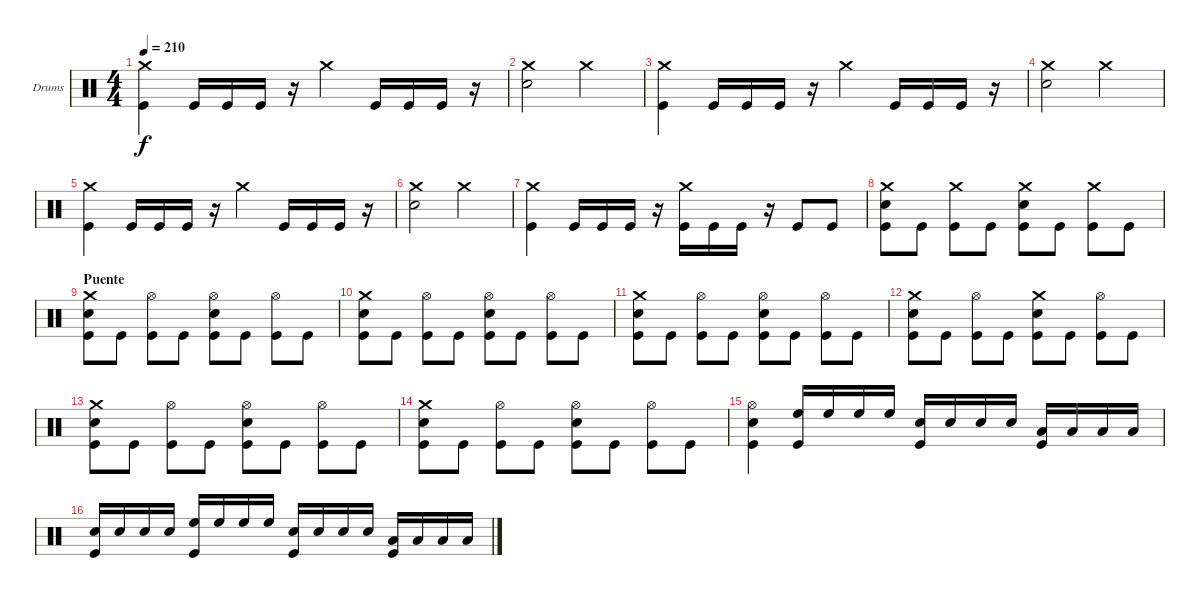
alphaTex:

\bracketExtendMode groupsimilarinstruments
\firstSystemTrackNameOrientation horizontal
\otherSystemsTrackNameOrientation horizontal
\track ("Drumkit" "Drums") {instrument percussion}
\staff {score}
\articulation defaults
\ts (4 4)
\tempo 210
\clef neutral
\ks c
("Crash medium (hit)" "Kick (hit)").4{dy f} "Kick (hit)".16 "Kick (hit)".16 "Kick (hit)".16 r.16 "Crash medium (hit)".4 "Kick (hit)".16 "Kick (hit)".16 "Kick (hit)".16 r.16 |
("Crash medium (hit)" "Snare (hit) 2").2 "Crash medium (hit)".2 |
("Crash medium (hit)" "Kick (hit)").4 "Kick (hit)".16 "Kick (hit)".16 "Kick (hit)".16 r.16 "Crash medium (hit)".4 "Kick (hit)".16 "Kick (hit)".16 "Kick (hit)".16 r.16 |
("Crash medium (hit)" "Snare (hit) 2").2 "Crash medium (hit)".2 |
("Crash medium (hit)" "Kick (hit)").4 "Kick (hit)".16 "Kick (hit)".16 "Kick (hit)".16 r.16 "Crash medium (hit)".4 "Kick (hit)".16 "Kick (hit)".16 "Kick (hit)".16 r.16 |
("Crash medium (hit)" "Snare (hit) 2").2 "Crash medium (hit)".2 |
("Crash medium (hit)" "Kick (hit)").4 "Kick (hit)".16 "Kick (hit)".16 "Kick (hit)".16 r.16 ("Crash medium (hit)" "Kick (hit)").16 "Kick (hit)".16 "Kick (hit)".16 r.16 "Kick (hit)".8 "Kick (hit)".8 |
("Crash medium (hit)" "Snare (hit) 2" "Kick (hit)").8 "Kick (hit)".8 ("Crash medium (hit)" "Kick (hit)").8 "Kick (hit)".8 ("Crash medium (hit)" "Snare (hit) 2" "Kick (hit)").8 "Kick (hit)".8 ("Crash medium (hit)" "Kick (hit)").8 "Kick (hit)".8 |
\section ("" "Puente")
("Crash medium (hit)" "Snare (hit) 2" "Kick (hit)").8 "Kick (hit)".8 ("Hi-Hat (open)" "Kick (hit)").8 "Kick (hit)".8 ("Hi-Hat (open)" "Snare (hit) 2" "Kick (hit)").8 "Kick (hit)".8 ("Hi-Hat (open)" "Kick (hit)").8 "Kick (hit)".8 |
("Crash medium (hit)" "Snare (hit) 2" "Kick (hit)").8 "Kick (hit)".8 ("Hi-Hat (open)" "Kick (hit)").8 "Kick (hit)".8 ("Hi-Hat (open)" "Snare (hit) 2" "Kick (hit)").8 "Kick (hit)".8 ("Hi-Hat (open)" "Kick (hit)").8 "Kick (hit)".8 |
("Crash medium (hit)" "Snare (hit) 2" "Kick (hit)").8 "Kick (hit)".8 ("Hi-Hat (open)" "Kick (hit)").8 "Kick (hit)".8 ("Hi-Hat (open)" "Snare (hit) 2" "Kick (hit)").8 "Kick (hit)".8 ("Hi-Hat (open)" "Kick (hit)").8 "Kick (hit)".8 |
("Crash medium (hit)" "Snare (hit) 2" "Kick (hit)").8 "Kick (hit)".8 ("Hi-Hat (open)" "Kick (hit)").8 "Kick (hit)".8 ("Crash medium (hit)" "Snare (hit) 2" "Kick (hit)").8 "Kick (hit)".8 ("Hi-Hat (open)" "Kick (hit)").8 "Kick (hit)".8 |
("Crash medium (hit)" "Snare (hit) 2" "Kick (hit)").8 "Kick (hit)".8 ("Hi-Hat (open)" "Kick (hit)").8 "Kick (hit)".8 ("Hi-Hat (open)" "Snare (hit) 2" "Kick (hit)").8 "Kick (hit)".8 ("Hi-Hat (open)" "Kick (hit)").8 "Kick (hit)".8 |
("Crash medium (hit)" "Snare (hit) 2" "Kick (hit)").8 "Kick (hit)".8 ("Hi-Hat (open)" "Kick (hit)").8 "Kick (hit)".8 ("Hi-Hat (open)" "Snare (hit) 2" "Kick (hit)").8 "Kick (hit)".8 ("Hi-Hat (open)" "Kick (hit)").8 "Kick (hit)".8 |
("Hi-Hat (open)" "Snare (hit) 2" "Kick (hit)").4 ("High Floor Tom (hit)" "Kick (hit)").16 "High Floor Tom (hit)".16 "High Floor Tom (hit)".16 "High Floor Tom (hit)".16 ("Snare (hit) 2" "Kick (hit)").16 "Snare (hit) 2".16 "Snare (hit) 2".16 "Snare (hit) 2".16 ("Low Tom (hit)" "Kick (hit)").16 "Low Tom (hit)".16 "Low Tom (hit)".16 "Low Tom (hit)".16 |
("Snare (hit) 2" "Kick (hit)").16 "Snare (hit) 2".16 "Snare (hit) 2".16 "Snare (hit) 2".16 ("High Floor Tom (hit)" "Kick (hit)").16 "High Floor Tom (hit)".16 "High Floor Tom (hit)".16 "High Floor Tom (hit)".16 ("Snare (hit) 2" "Kick (hit)").16 "Snare (hit) 2".16 "Snare (hit) 2".16 "Snare (hit) 2".16 ("Low Tom (hit)" "Kick (hit)").16 "Low Tom (hit)".16 "Low Tom (hit)".16 "Low Tom (hit)".16
